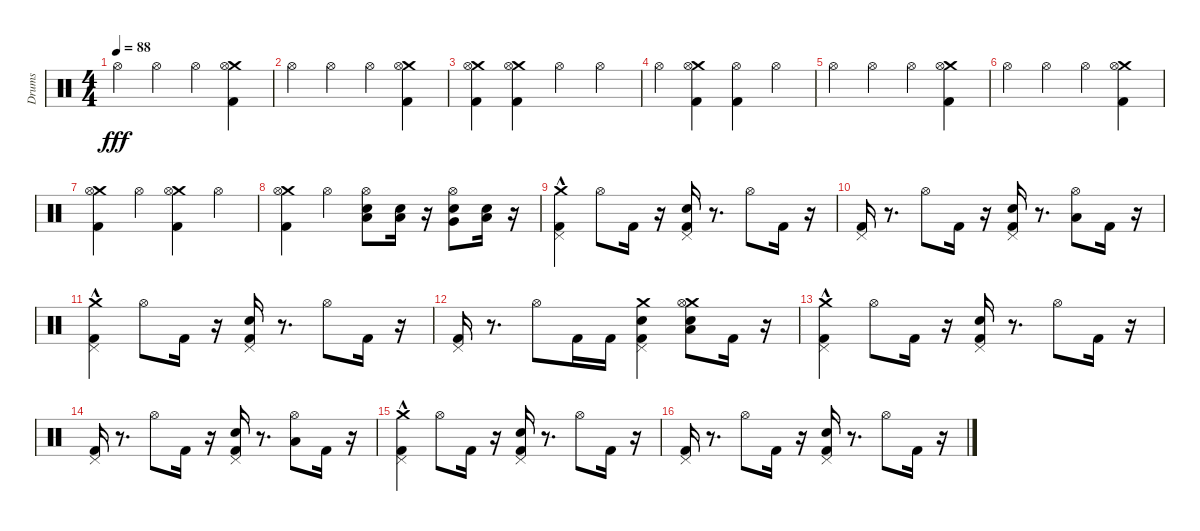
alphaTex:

\track ("Drums" "Drums") {instrument percussion}
\staff {score}
\articulation defaults
\ts (4 4)
\tempo 88
\clef neutral
\ks c "Hi-Hat (open)".4{dy fff} "Hi-Hat (open)".4 "Hi-Hat (open)".4
("Crash medium (hit)" "Kick (hit) 2" "Hi-Hat (open)").4 |
"Hi-Hat (open)".4 "Hi-Hat (open)".4 "Hi-Hat (open)".4 ("Crash medium (hit)" "Kick (hit) 2" "Hi-Hat (open)").4 |
("Crash medium (hit)" "Kick (hit) 2" "Hi-Hat (open)").4 ("Crash medium (hit)" "Kick (hit) 2" "Hi-Hat (open)").4 "Hi-Hat (open)".4 "Hi-Hat (open)".4 |
"Hi-Hat (open)".4 ("Crash medium (hit)" "Kick (hit) 2" "Hi-Hat (open)").4 ("Kick (hit) 2" "Hi-Hat (open)").4 "Hi-Hat (open)".4 |
"Hi-Hat (open)".4 "Hi-Hat (open)".4 "Hi-Hat (open)".4 ("Crash medium (hit)" "Kick (hit) 2" "Hi-Hat (open)").4 |
"Hi-Hat (open)".4 "Hi-Hat (open)".4 "Hi-Hat (open)".4 ("Crash medium (hit)" "Kick (hit) 2" "Hi-Hat (open)").4 |
("Crash medium (hit)" "Kick (hit) 2" "Hi-Hat (open)").4 "Hi-Hat (open)".4 ("Crash medium (hit)" "Kick (hit) 2" "Hi-Hat (open)").4 "Hi-Hat (open)".4 |
("Crash medium (hit)" "Kick (hit) 2" "Hi-Hat (open)").4 "Hi-Hat (open)".4 ("Low Tom (hit)" "Electric Snare (hit)" "Hi-Hat (open)").8 ("Low Tom (hit)" "Electric Snare (hit)").16 r.16 ("Very Low Tom (hit)" "Electric Snare (hit)" "Hi-Hat (open)").8 ("Low Floor Tom (hit)" "Electric Snare (hit)").16 r.16 |
("Crash medium (hit)"{hac} "Pedal Hi-Hat (hit)" "Kick (hit) 2").4 "Hi-Hat (open)".8 "Kick (hit) 2".16 r.16 ("Pedal Hi-Hat (hit)" "Snare (hit) 2" "Kick (hit) 2").16 r.8{d} "Hi-Hat (open)".8 "Kick (hit) 2".16 r.16 |
("Pedal Hi-Hat (hit)" "Kick (hit) 2").16 r.8{d} "Hi-Hat (open)".8 "Kick (hit) 2".16 r.16 ("Pedal Hi-Hat (hit)" "Snare (hit) 2" "Kick (hit) 2").16 r.8{d} ("Low Floor Tom (hit)" "Hi-Hat (open)").8 "Kick (hit) 2".16 r.16 |
("Crash medium (hit)"{hac} "Pedal Hi-Hat (hit)" "Kick (hit) 2").4 "Hi-Hat (open)".8 "Kick (hit) 2".16 r.16 ("Pedal Hi-Hat (hit)" "Snare (hit) 2" "Kick (hit) 2").16 r.8{d} "Hi-Hat (open)".8 "Kick (hit) 2".16 r.16 |
("Pedal Hi-Hat (hit)" "Kick (hit) 2").16 r.8{d} "Hi-Hat (open)".8 "Kick (hit) 2".16 "Kick (hit) 2".16 ("Crash medium (hit)" "Pedal Hi-Hat (hit)" "Snare (hit) 2" "Kick (hit) 2").4 ("Crash medium (hit)" "Snare (hit) 2" "Low Floor Tom (hit)" "Hi-Hat (open)").8 "Kick (hit) 2".16 r.16 |
("Crash medium (hit)"{hac} "Pedal Hi-Hat (hit)" "Kick (hit) 2").4 "Hi-Hat (open)".8 "Kick (hit) 2".16 r.16 ("Pedal Hi-Hat (hit)" "Snare (hit) 2" "Kick (hit) 2").16 r.8{d} "Hi-Hat (open)".8 "Kick (hit) 2".16 r.16 |
("Pedal Hi-Hat (hit)" "Kick (hit) 2").16 r.8{d} "Hi-Hat (open)".8 "Kick (hit) 2".16 r.16 ("Pedal Hi-Hat (hit)" "Snare (hit) 2" "Kick (hit) 2").16 r.8{d} ("Low Floor Tom (hit)" "Hi-Hat (open)").8 "Kick (hit) 2".16 r.16 |
("Crash medium (hit)"{hac} "Pedal Hi-Hat (hit)" "Kick (hit) 2").4 "Hi-Hat (open)".8 "Kick (hit) 2".16 r.16 ("Pedal Hi-Hat (hit)" "Snare (hit) 2" "Kick (hit) 2").16 r.8{d} "Hi-Hat (open)".8 "Kick (hit) 2".16 r.16 |
("Pedal Hi-Hat (hit)" "Kick (hit) 2").16 r.8{d} "Hi-Hat (open)".8 "Kick (hit) 2".16 r.16 ("Pedal Hi-Hat (hit)" "Snare (hit) 2" "Kick (hit) 2").16 r.8{d} "Hi-Hat (open)".8 "Kick (hit) 2".16 r.16
